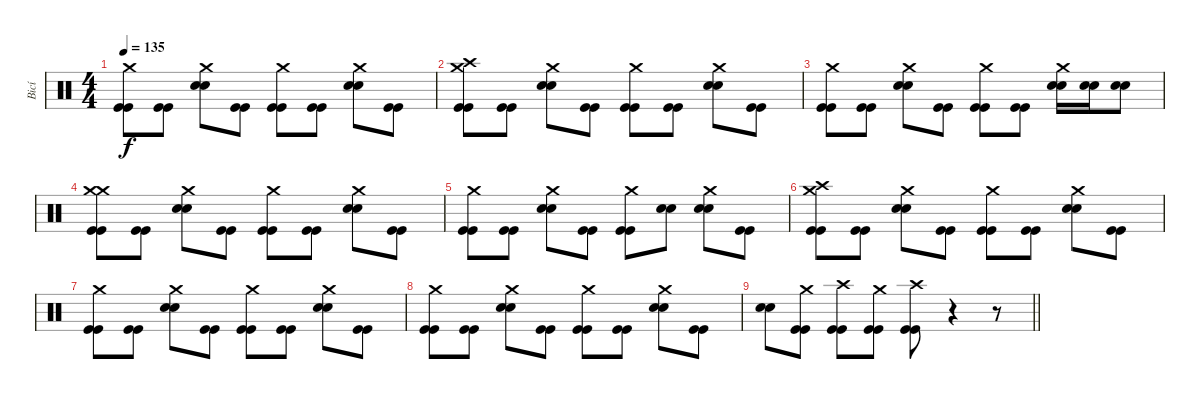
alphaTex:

\track ("Bicí" "Bicí") {instrument percussion}
\staff {score}
\articulation defaults
\ts (4 4)
\tempo 135
\clef neutral
\ks c
("Crash medium (hit)" "Kick (hit)" "Kick (hit)").8{dy f} ("Kick (hit)" "Kick (hit)").8 ("Crash medium (hit)" "Electric Snare (hit)" "Electric Snare (hit)").8 ("Kick (hit)" "Kick (hit)").8 ("Crash medium (hit)" "Kick (hit)" "Kick (hit)").8 ("Kick (hit)" "Kick (hit)").8 ("Crash medium (hit)" "Electric Snare (hit)" "Electric Snare (hit)").8 ("Kick (hit)" "Kick (hit)").8 |
("Crash high (hit)" "Crash medium (hit)" "Kick (hit)" "Kick (hit)").8 ("Kick (hit)" "Kick (hit)").8 ("Crash medium (hit)" "Electric Snare (hit)" "Electric Snare (hit)").8 ("Kick (hit)" "Kick (hit)").8 ("Crash medium (hit)" "Kick (hit)" "Kick (hit)").8 ("Kick (hit)" "Kick (hit)").8 ("Crash medium (hit)" "Electric Snare (hit)" "Electric Snare (hit)").8 ("Kick (hit)" "Kick (hit)").8 |
("Crash medium (hit)" "Kick (hit)" "Kick (hit)").8 ("Kick (hit)" "Kick (hit)").8 ("Crash medium (hit)" "Electric Snare (hit)" "Electric Snare (hit)").8 ("Kick (hit)" "Kick (hit)").8 ("Crash medium (hit)" "Kick (hit)" "Kick (hit)").8 ("Kick (hit)" "Kick (hit)").8 ("Crash medium (hit)" "Electric Snare (hit)" "Electric Snare (hit)").16 ("Electric Snare (hit)" "Electric Snare (hit)").16 ("Electric Snare (hit)" "Electric Snare (hit)").8 |
("Crash medium (hit)" "Crash medium (hit)" "Kick (hit)" "Kick (hit)").8 ("Kick (hit)" "Kick (hit)").8 ("Crash medium (hit)" "Electric Snare (hit)" "Electric Snare (hit)").8 ("Kick (hit)" "Kick (hit)").8 ("Crash medium (hit)" "Kick (hit)" "Kick (hit)").8 ("Kick (hit)" "Kick (hit)").8 ("Crash medium (hit)" "Electric Snare (hit)" "Electric Snare (hit)").8 ("Kick (hit)" "Kick (hit)").8 |
("Crash medium (hit)" "Kick (hit)" "Kick (hit)").8 ("Kick (hit)" "Kick (hit)").8 ("Crash medium (hit)" "Electric Snare (hit)" "Electric Snare (hit)").8 ("Kick (hit)" "Kick (hit)").8 ("Crash medium (hit)" "Kick (hit)" "Kick (hit)").8 ("Electric Snare (hit)" "Electric Snare (hit)").8 ("Crash medium (hit)" "Electric Snare (hit)" "Electric Snare (hit)").8 ("Kick (hit)" "Kick (hit)").8 |
("Crash high (hit)" "Crash medium (hit)" "Kick (hit)" "Kick (hit)").8 ("Kick (hit)" "Kick (hit)").8 ("Crash medium (hit)" "Electric Snare (hit)" "Electric Snare (hit)").8 ("Kick (hit)" "Kick (hit)").8 ("Crash medium (hit)" "Kick (hit)" "Kick (hit)").8 ("Kick (hit)" "Kick (hit)").8 ("Crash medium (hit)" "Electric Snare (hit)" "Electric Snare (hit)").8 ("Kick (hit)" "Kick (hit)").8 |
("Crash medium (hit)" "Kick (hit)" "Kick (hit)").8 ("Kick (hit)" "Kick (hit)").8 ("Crash medium (hit)" "Electric Snare (hit)" "Electric Snare (hit)").8 ("Kick (hit)" "Kick (hit)").8 ("Crash medium (hit)" "Kick (hit)" "Kick (hit)").8 ("Kick (hit)" "Kick (hit)").8 ("Crash medium (hit)" "Electric Snare (hit)" "Electric Snare (hit)").8 ("Kick (hit)" "Kick (hit)").8 |
("Crash medium (hit)" "Kick (hit)" "Kick (hit)").8 ("Kick (hit)" "Kick (hit)").8 ("Crash medium (hit)" "Electric Snare (hit)" "Electric Snare (hit)").8 ("Kick (hit)" "Kick (hit)").8 ("Crash medium (hit)" "Kick (hit)" "Kick (hit)").8 ("Kick (hit)" "Kick (hit)").8 ("Crash medium (hit)" "Electric Snare (hit)" "Electric Snare (hit)").8 ("Kick (hit)" "Kick (hit)").8 |
\barLineRight lightlight
("Electric Snare (hit)" "Electric Snare (hit)").8 ("Crash medium (hit)" "Kick (hit)" "Kick (hit)").8 ("Crash high (hit)" "Kick (hit)" "Kick (hit)").8 ("Crash medium (hit)" "Kick (hit)" "Kick (hit)").8 ("Crash high (hit)" "Kick (hit)" "Kick (hit)").8 r.4 r.8
